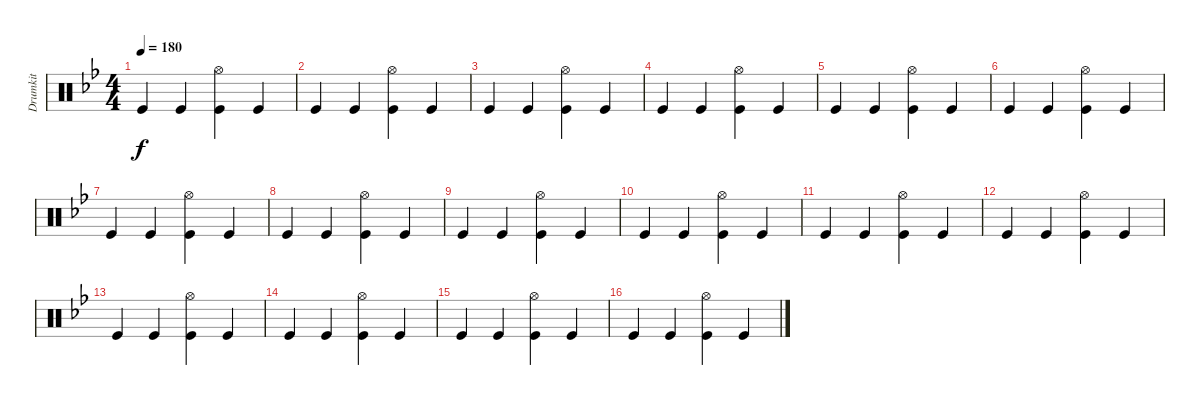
\track ("Drumkit" "Drumkit") {instrument percussion}
\staff {score}
\articulation defaults
\ts (4 4)
\tempo 180
\clef neutral
\ks bb "Kick (hit)".4{dy f} "Kick (hit)".4
("Hi-Hat (open)" "Kick (hit)").4 "Kick (hit)".4 |
"Kick (hit)".4 "Kick (hit)".4 ("Hi-Hat (open)" "Kick (hit)").4 "Kick (hit)".4 |
"Kick (hit)".4 "Kick (hit)".4 ("Hi-Hat (open)" "Kick (hit)").4 "Kick (hit)".4 |
"Kick (hit)".4 "Kick (hit)".4 ("Hi-Hat (open)" "Kick (hit)").4 "Kick (hit)".4 |
"Kick (hit)".4 "Kick (hit)".4 ("Hi-Hat (open)" "Kick (hit)").4 "Kick (hit)".4 |
"Kick (hit)".4 "Kick (hit)".4 ("Hi-Hat (open)" "Kick (hit)").4 "Kick (hit)".4 |
"Kick (hit)".4 "Kick (hit)".4 ("Hi-Hat (open)" "Kick (hit)").4 "Kick (hit)".4 |
"Kick (hit)".4 "Kick (hit)".4 ("Hi-Hat (open)" "Kick (hit)").4 "Kick (hit)".4 |
"Kick (hit)".4 "Kick (hit)".4 ("Hi-Hat (open)" "Kick (hit)").4 "Kick (hit)".4 |
"Kick (hit)".4 "Kick (hit)".4 ("Hi-Hat (open)" "Kick (hit)").4 "Kick (hit)".4 |
"Kick (hit)".4 "Kick (hit)".4 ("Hi-Hat (open)" "Kick (hit)").4 "Kick (hit)".4 |
"Kick (hit)".4 "Kick (hit)".4 ("Hi-Hat (open)" "Kick (hit)").4 "Kick (hit)".4 |
"Kick (hit)".4 "Kick (hit)".4 ("Hi-Hat (open)" "Kick (hit)").4 "Kick (hit)".4 |
"Kick (hit)".4 "Kick (hit)".4 ("Hi-Hat (open)" "Kick (hit)").4 "Kick (hit)".4 |
"Kick (hit)".4 "Kick (hit)".4 ("Hi-Hat (open)" "Kick (hit)").4 "Kick (hit)".4 |
"Kick (hit)".4 "Kick (hit)".4 ("Hi-Hat (open)" "Kick (hit)").4 "Kick (hit)".4
